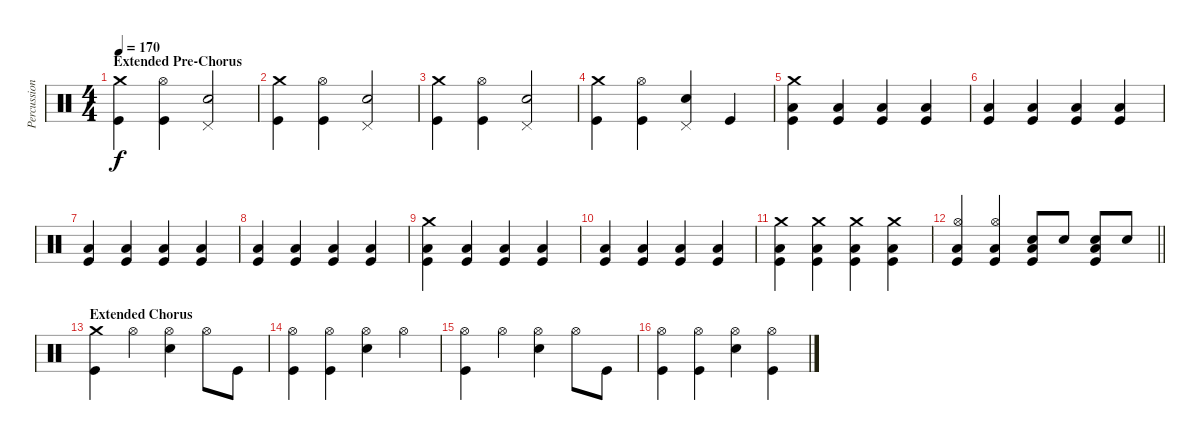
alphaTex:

\track ("Percussion" "Percussion") {instrument percussion}
\staff {score}
\articulation defaults
\ts (4 4)
\section ("" "Extended Pre-Chorus")
\tempo 170
\clef neutral
\ks c
("Crash medium (hit)" "Kick (hit)").4{dy f} ("Hi-Hat (open)" "Kick (hit)").4 ("Pedal Hi-Hat (hit)" "Electric Snare (hit)").2 |
("Crash medium (hit)" "Kick (hit)").4 ("Hi-Hat (open)" "Kick (hit)").4 ("Pedal Hi-Hat (hit)" "Electric Snare (hit)").2 |
("Crash medium (hit)" "Kick (hit)").4 ("Hi-Hat (open)" "Kick (hit)").4 ("Pedal Hi-Hat (hit)" "Electric Snare (hit)").2 |
("Crash medium (hit)" "Kick (hit)").4 ("Hi-Hat (open)" "Kick (hit)").4 ("Pedal Hi-Hat (hit)" "Electric Snare (hit)").4 "Kick (hit)".4 |
("Crash medium (hit)" "Low Tom (hit)" "Kick (hit)").4 ("Low Tom (hit)" "Kick (hit)").4 ("Low Tom (hit)" "Kick (hit)").4 ("Low Tom (hit)" "Kick (hit)").4 |
("Low Tom (hit)" "Kick (hit)").4 ("Low Tom (hit)" "Kick (hit)").4 ("Low Tom (hit)" "Kick (hit)").4 ("Low Tom (hit)" "Kick (hit)").4 |
("Low Tom (hit)" "Kick (hit)").4 ("Low Tom (hit)" "Kick (hit)").4 ("Low Tom (hit)" "Kick (hit)").4 ("Low Tom (hit)" "Kick (hit)").4 |
("Low Tom (hit)" "Kick (hit)").4 ("Low Tom (hit)" "Kick (hit)").4 ("Low Tom (hit)" "Kick (hit)").4 ("Low Tom (hit)" "Kick (hit)").4 |
("Crash medium (hit)" "Low Tom (hit)" "Kick (hit)").4 ("Low Tom (hit)" "Kick (hit)").4 ("Low Tom (hit)" "Kick (hit)").4 ("Low Tom (hit)" "Kick (hit)").4 |
("Low Tom (hit)" "Kick (hit)").4 ("Low Tom (hit)" "Kick (hit)").4 ("Low Tom (hit)" "Kick (hit)").4 ("Low Tom (hit)" "Kick (hit)").4 |
("Crash medium (hit)" "Low Tom (hit)" "Kick (hit)").4 ("Crash medium (hit)" "Low Tom (hit)" "Kick (hit)").4 ("Crash medium (hit)" "Low Tom (hit)" "Kick (hit)").4 ("Crash medium (hit)" "Low Tom (hit)" "Kick (hit)").4 |
\barLineRight lightlight
("Hi-Hat (open)" "Low Tom (hit)" "Kick (hit)").4 ("Hi-Hat (open)" "Low Tom (hit)" "Kick (hit)").4 ("Electric Snare (hit)" "Low Tom (hit)" "Kick (hit)").8 "Electric Snare (hit)".8 ("Electric Snare (hit)" "Low Tom (hit)" "Kick (hit)").8 "Electric Snare (hit)".8 |
\section ("" "Extended Chorus")
("Crash medium (hit)" "Kick (hit)").4 "Hi-Hat (open)".4 ("Hi-Hat (open)" "Electric Snare (hit)").4 "Hi-Hat (open)".8 "Kick (hit)".8 |
("Hi-Hat (open)" "Kick (hit)").4 ("Hi-Hat (open)" "Kick (hit)").4 ("Hi-Hat (open)" "Electric Snare (hit)").4 "Hi-Hat (open)".4 |
("Hi-Hat (open)" "Kick (hit)").4 "Hi-Hat (open)".4 ("Hi-Hat (open)" "Electric Snare (hit)").4 "Hi-Hat (open)".8 "Kick (hit)".8 |
("Hi-Hat (open)" "Kick (hit)").4 ("Hi-Hat (open)" "Kick (hit)").4 ("Hi-Hat (open)" "Electric Snare (hit)").4 ("Hi-Hat (open)" "Kick (hit)").4
